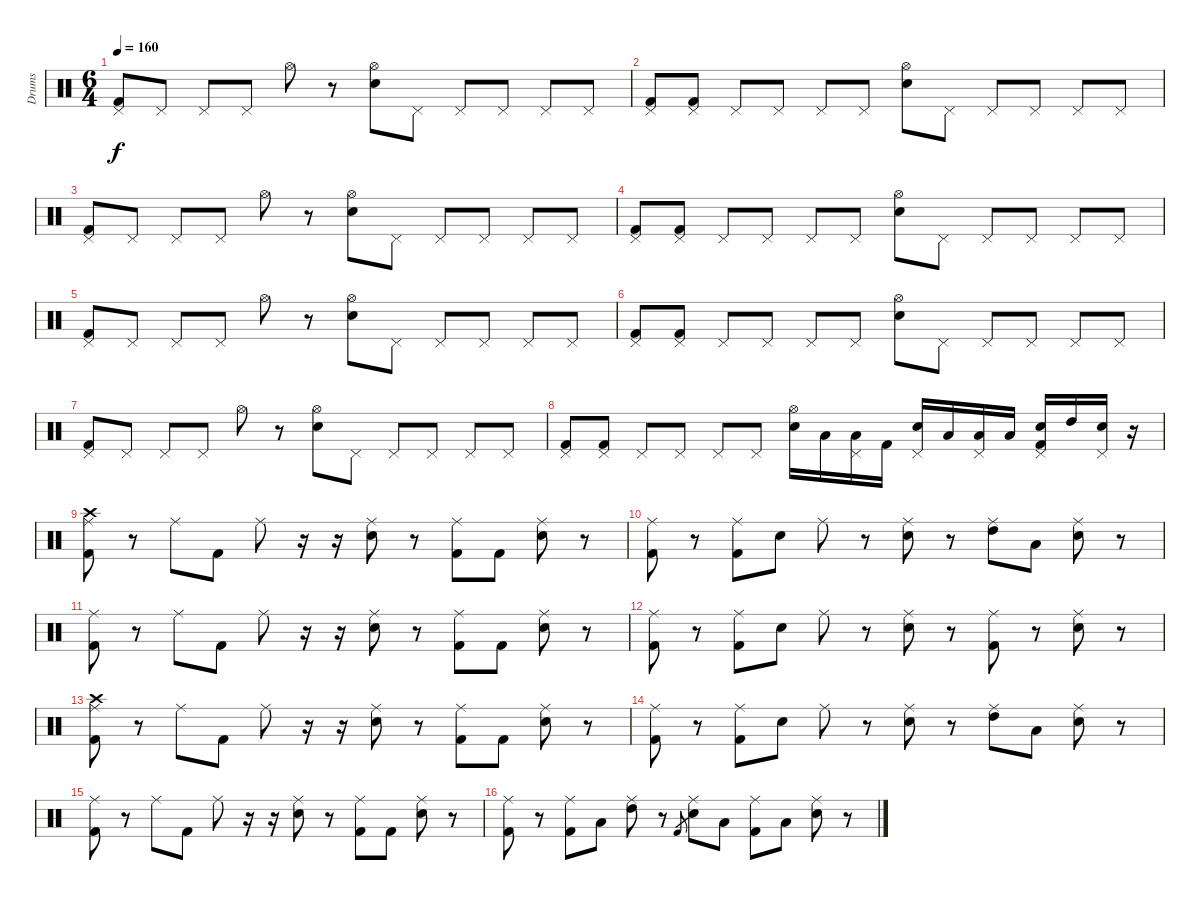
\track ("Drums" "Drums") {instrument percussion}
\staff {score}
\articulation defaults
\ts (6 4)
\tempo 160
\clef neutral
\ks c
("Pedal Hi-Hat (hit)" "Kick (hit) 2").8{dy f} "Pedal Hi-Hat (hit)".8 "Pedal Hi-Hat (hit)".8 "Pedal Hi-Hat (hit)".8 "Hi-Hat (open)".8 r.8 ("Hi-Hat (open)" "Electric Snare (hit)").8 "Pedal Hi-Hat (hit)".8 "Pedal Hi-Hat (hit)".8 "Pedal Hi-Hat (hit)".8 "Pedal Hi-Hat (hit)".8 "Pedal Hi-Hat (hit)".8 |
("Pedal Hi-Hat (hit)" "Kick (hit) 2").8 ("Pedal Hi-Hat (hit)" "Kick (hit) 2").8 "Pedal Hi-Hat (hit)".8 "Pedal Hi-Hat (hit)".8 "Pedal Hi-Hat (hit)".8 "Pedal Hi-Hat (hit)".8 ("Hi-Hat (open)" "Electric Snare (hit)").8 "Pedal Hi-Hat (hit)".8 "Pedal Hi-Hat (hit)".8 "Pedal Hi-Hat (hit)".8 "Pedal Hi-Hat (hit)".8 "Pedal Hi-Hat (hit)".8 |
("Pedal Hi-Hat (hit)" "Kick (hit) 2").8 "Pedal Hi-Hat (hit)".8 "Pedal Hi-Hat (hit)".8 "Pedal Hi-Hat (hit)".8 "Hi-Hat (open)".8 r.8 ("Hi-Hat (open)" "Electric Snare (hit)").8 "Pedal Hi-Hat (hit)".8 "Pedal Hi-Hat (hit)".8 "Pedal Hi-Hat (hit)".8 "Pedal Hi-Hat (hit)".8 "Pedal Hi-Hat (hit)".8 |
("Pedal Hi-Hat (hit)" "Kick (hit) 2").8 ("Pedal Hi-Hat (hit)" "Kick (hit) 2").8 "Pedal Hi-Hat (hit)".8 "Pedal Hi-Hat (hit)".8 "Pedal Hi-Hat (hit)".8 "Pedal Hi-Hat (hit)".8 ("Hi-Hat (open)" "Electric Snare (hit)").8 "Pedal Hi-Hat (hit)".8 "Pedal Hi-Hat (hit)".8 "Pedal Hi-Hat (hit)".8 "Pedal Hi-Hat (hit)".8 "Pedal Hi-Hat (hit)".8 |
("Pedal Hi-Hat (hit)" "Kick (hit) 2").8 "Pedal Hi-Hat (hit)".8 "Pedal Hi-Hat (hit)".8 "Pedal Hi-Hat (hit)".8 "Hi-Hat (open)".8 r.8 ("Hi-Hat (open)" "Electric Snare (hit)").8 "Pedal Hi-Hat (hit)".8 "Pedal Hi-Hat (hit)".8 "Pedal Hi-Hat (hit)".8 "Pedal Hi-Hat (hit)".8 "Pedal Hi-Hat (hit)".8 |
("Pedal Hi-Hat (hit)" "Kick (hit) 2").8 ("Pedal Hi-Hat (hit)" "Kick (hit) 2").8 "Pedal Hi-Hat (hit)".8 "Pedal Hi-Hat (hit)".8 "Pedal Hi-Hat (hit)".8 "Pedal Hi-Hat (hit)".8 ("Hi-Hat (open)" "Electric Snare (hit)").8 "Pedal Hi-Hat (hit)".8 "Pedal Hi-Hat (hit)".8 "Pedal Hi-Hat (hit)".8 "Pedal Hi-Hat (hit)".8 "Pedal Hi-Hat (hit)".8 |
("Pedal Hi-Hat (hit)" "Kick (hit) 2").8 "Pedal Hi-Hat (hit)".8 "Pedal Hi-Hat (hit)".8 "Pedal Hi-Hat (hit)".8 "Hi-Hat (open)".8 r.8 ("Hi-Hat (open)" "Electric Snare (hit)").8 "Pedal Hi-Hat (hit)".8 "Pedal Hi-Hat (hit)".8 "Pedal Hi-Hat (hit)".8 "Pedal Hi-Hat (hit)".8 "Pedal Hi-Hat (hit)".8 |
("Pedal Hi-Hat (hit)" "Kick (hit) 2").8 ("Pedal Hi-Hat (hit)" "Kick (hit) 2").8 "Pedal Hi-Hat (hit)".8 "Pedal Hi-Hat (hit)".8 "Pedal Hi-Hat (hit)".8 "Pedal Hi-Hat (hit)".8 ("Hi-Hat (open)" "Electric Snare (hit)").16 "Low Tom (hit)".16 ("Pedal Hi-Hat (hit)" "Low Tom (hit)").16 "Kick (hit) 2".16 ("Pedal Hi-Hat (hit)" "Electric Snare (hit)").16 "Low Tom (hit)".16 ("Pedal Hi-Hat (hit)" "Low Tom (hit)").16 "Low Tom (hit)".16 ("Pedal Hi-Hat (hit)" "Electric Snare (hit)" "Kick (hit) 2").16 "High Tom (hit)".16 ("Pedal Hi-Hat (hit)" "Electric Snare (hit)").16 r.16 |
("Crash high (hit)" "Ride (middle)" "Kick (hit) 2").8 r.8 "Ride (middle)".8 "Kick (hit) 2".8 "Ride (middle)".8 r.16 r.16 ("Ride (middle)" "Electric Snare (hit)").8 r.8 ("Ride (middle)" "Kick (hit) 2").8 "Kick (hit) 2".8 ("Ride (middle)" "Electric Snare (hit)").8 r.8 |
("Ride (middle)" "Kick (hit) 2").8 r.8 ("Ride (middle)" "Kick (hit) 2").8 "Electric Snare (hit)".8 "Ride (middle)".8 r.8 ("Ride (middle)" "Electric Snare (hit)").8 r.8 ("Ride (middle)" "High Tom (hit)").8 "Low Tom (hit)".8 ("Ride (middle)" "Electric Snare (hit)").8 r.8 |
("Ride (middle)" "Kick (hit) 2").8 r.8 "Ride (middle)".8 "Kick (hit) 2".8 "Ride (middle)".8 r.16 r.16 ("Ride (middle)" "Electric Snare (hit)").8 r.8 ("Ride (middle)" "Kick (hit) 2").8 "Kick (hit) 2".8 ("Ride (middle)" "Electric Snare (hit)").8 r.8 |
("Ride (middle)" "Kick (hit) 2").8 r.8 ("Ride (middle)" "Kick (hit) 2").8 "Electric Snare (hit)".8 "Ride (middle)".8 r.8 ("Ride (middle)" "Electric Snare (hit)").8 r.8 ("Ride (middle)" "Kick (hit) 2").8 r.8 ("Ride (middle)" "Electric Snare (hit)").8 r.8 |
("Crash high (hit)" "Ride (middle)" "Kick (hit) 2").8 r.8 "Ride (middle)".8 "Kick (hit) 2".8 "Ride (middle)".8 r.16 r.16 ("Ride (middle)" "Electric Snare (hit)").8 r.8 ("Ride (middle)" "Kick (hit) 2").8 "Kick (hit) 2".8 ("Ride (middle)" "Electric Snare (hit)").8 r.8 |
("Ride (middle)" "Kick (hit) 2").8 r.8 ("Ride (middle)" "Kick (hit) 2").8 "Electric Snare (hit)".8 "Ride (middle)".8 r.8 ("Ride (middle)" "Electric Snare (hit)").8 r.8 ("Ride (middle)" "High Tom (hit)").8 "Low Tom (hit)".8 ("Ride (middle)" "Electric Snare (hit)").8 r.8 |
("Ride (middle)" "Kick (hit) 2").8 r.8 "Ride (middle)".8 "Kick (hit) 2".8 "Ride (middle)".8 r.16 r.16 ("Ride (middle)" "Electric Snare (hit)").8 r.8 ("Ride (middle)" "Kick (hit) 2").8 "Kick (hit) 2".8 ("Ride (middle)" "Electric Snare (hit)").8 r.8 |
("Ride (middle)" "Kick (hit) 2").8 r.8 ("Ride (middle)" "Kick (hit) 2").8 "Low Tom (hit)".8 ("Ride (middle)" "High Tom (hit)").8 r.8 "Kick (hit) 2".8{gr} ("Ride (middle)" "Snare (hit) 2").8 "Low Tom (hit)".8 ("Ride (middle)" "Kick (hit) 2").8 "Low Tom (hit)".8 ("Ride (middle)" "Snare (hit) 2").8 r.8
